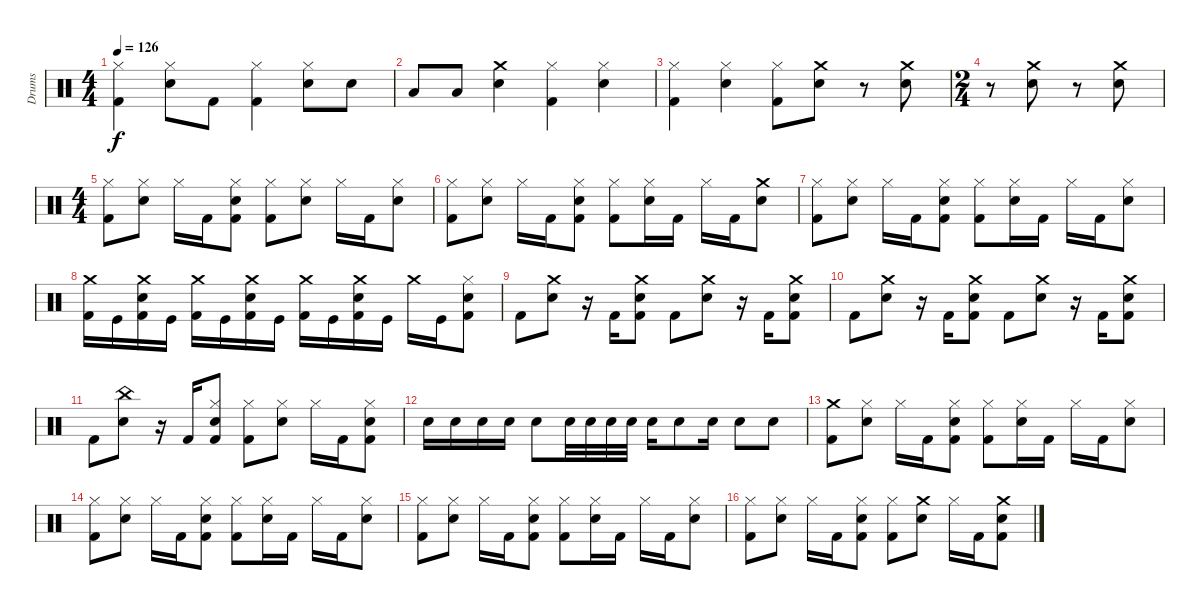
\track ("Drums" "Drums") {instrument percussion}
\staff {score}
\articulation defaults
\ts (4 4)
\tempo 126
\clef neutral
\ks c
("Kick (hit) 2" "Hi-Hat (closed)").4{dy f} ("Hi-Hat (closed)" "Snare (hit) 2").8 "Kick (hit) 2".8 ("Kick (hit) 2" "Hi-Hat (closed)").4 ("Hi-Hat (closed)" "Snare (hit) 2").8 "Snare (hit) 2".8 |
"Low Tom (hit)".8 "Low Tom (hit)".8 ("Snare (hit) 2" "Crash medium (hit)").4 ("Kick (hit) 2" "Hi-Hat (closed)").4 ("Hi-Hat (closed)" "Snare (hit) 2").4 |
("Kick (hit) 2" "Hi-Hat (closed)").4 ("Hi-Hat (closed)" "Snare (hit) 2").4 ("Hi-Hat (closed)" "Kick (hit) 2").8 ("Crash medium (hit)" "Snare (hit) 2").8 r.8 ("Snare (hit) 2" "Crash medium (hit)").8 |
\ts (2 4)
r.8 ("Crash medium (hit)" "Snare (hit) 2").8 r.8 ("Crash medium (hit)" "Snare (hit) 2").8 |
\ts (4 4)
("Hi-Hat (closed)" "Kick (hit) 2").8 ("Snare (hit) 2" "Hi-Hat (closed)").8 "Hi-Hat (closed)".16 "Kick (hit) 2".16 ("Snare (hit) 2" "Hi-Hat (closed)" "Kick (hit) 2").8 ("Hi-Hat (closed)" "Kick (hit) 2").8 ("Snare (hit) 2" "Hi-Hat (closed)").8 "Hi-Hat (closed)".16 "Kick (hit) 2".16 ("Snare (hit) 2" "Hi-Hat (closed)").8 |
("Kick (hit) 2" "Hi-Hat (closed)").8 ("Snare (hit) 2" "Hi-Hat (closed)").8 "Hi-Hat (closed)".16 "Kick (hit) 2".16 ("Kick (hit) 2" "Snare (hit) 2" "Hi-Hat (closed)").8 ("Kick (hit) 2" "Hi-Hat (closed)").8 ("Snare (hit) 2" "Hi-Hat (closed)").16 "Kick (hit) 2".16 "Hi-Hat (closed)".16 "Kick (hit) 2".16 ("Crash medium (hit)" "Snare (hit) 2").8 |
("Kick (hit) 2" "Hi-Hat (closed)").8 ("Snare (hit) 2" "Hi-Hat (closed)").8 "Hi-Hat (closed)".16 "Kick (hit) 2".16 ("Kick (hit) 2" "Snare (hit) 2" "Hi-Hat (closed)").8 ("Kick (hit) 2" "Hi-Hat (closed)").8 ("Snare (hit) 2" "Hi-Hat (closed)").16 "Kick (hit) 2".16 "Hi-Hat (closed)".16 "Kick (hit) 2".16 ("Hi-Hat (closed)" "Snare (hit) 2").8 |
("Crash medium (hit)" "Kick (hit) 2").16 "Kick (hit)".16 ("Snare (hit) 2" "Crash medium (hit)" "Kick (hit) 2").16 "Kick (hit)".16 ("Crash medium (hit)" "Kick (hit) 2").16 "Kick (hit)".16 ("Snare (hit) 2" "Crash medium (hit)" "Kick (hit) 2").16 "Kick (hit)".16 ("Crash medium (hit)" "Kick (hit) 2").16 "Kick (hit)".16 ("Snare (hit) 2" "Crash medium (hit)" "Kick (hit) 2").16 "Kick (hit)".16 "Crash medium (hit)".16 "Kick (hit)".16 ("Hi-Hat (closed)" "Snare (hit) 2" "Kick (hit) 2").8 |
"Kick (hit) 2".8 ("Snare (hit) 2" "Crash medium (hit)").8 r.16 "Kick (hit) 2".16 ("Kick (hit) 2" "Snare (hit) 2" "Crash medium (hit)").8 "Kick (hit) 2".8 ("Snare (hit) 2" "Crash medium (hit)").8 r.16 "Kick (hit) 2".16 ("Kick (hit) 2" "Snare (hit) 2" "Crash medium (hit)").8 |
"Kick (hit) 2".8 ("Snare (hit) 2" "Crash medium (hit)").8 r.16 "Kick (hit) 2".16 ("Kick (hit) 2" "Snare (hit) 2" "Crash medium (hit)").8 "Kick (hit) 2".8 ("Snare (hit) 2" "Crash medium (hit)").8 r.16 "Kick (hit) 2".16 ("Kick (hit) 2" "Snare (hit) 2" "Crash medium (hit)").8 |
"Kick (hit) 2".8 ("China (hit)" "Snare (hit) 2").8 r.16 "Kick (hit) 2".16 ("Hi-Hat (closed)" "Kick (hit) 2" "Snare (hit) 2").8 ("Hi-Hat (closed)" "Kick (hit) 2").8 ("Hi-Hat (closed)" "Snare (hit) 2").8 "Hi-Hat (closed)".16 "Kick (hit) 2".16 ("Hi-Hat (closed)" "Kick (hit) 2" "Snare (hit) 2").8 |
"Snare (hit) 2".16 "Snare (hit) 2".16 "Snare (hit) 2".16 "Snare (hit) 2".16 "Snare (hit) 2".8 "Snare (hit) 2".32 "Snare (hit) 2".32 "Snare (hit) 2".32 "Snare (hit) 2".32 "Snare (hit) 2".16 "Snare (hit) 2".8 "Snare (hit) 2".16 "Snare (hit) 2".8 "Snare (hit) 2".8 |
("Kick (hit) 2" "Crash medium (hit)").8 ("Snare (hit) 2" "Hi-Hat (closed)").8 "Hi-Hat (closed)".16 "Kick (hit) 2".16 ("Kick (hit) 2" "Snare (hit) 2" "Hi-Hat (closed)").8 ("Kick (hit) 2" "Hi-Hat (closed)").8 ("Snare (hit) 2" "Hi-Hat (closed)").16 "Kick (hit) 2".16 "Hi-Hat (closed)".16 "Kick (hit) 2".16 ("Snare (hit) 2" "Hi-Hat (closed)").8 |
("Hi-Hat (closed)" "Kick (hit) 2").8 ("Snare (hit) 2" "Hi-Hat (closed)").8 "Hi-Hat (closed)".16 "Kick (hit) 2".16 ("Kick (hit) 2" "Snare (hit) 2" "Hi-Hat (closed)").8 ("Kick (hit) 2" "Hi-Hat (closed)").8 ("Snare (hit) 2" "Hi-Hat (closed)").16 "Kick (hit) 2".16 "Hi-Hat (closed)".16 "Kick (hit) 2".16 ("Snare (hit) 2" "Hi-Hat (closed)").8 |
("Hi-Hat (closed)" "Kick (hit) 2").8 ("Snare (hit) 2" "Hi-Hat (closed)").8 "Hi-Hat (closed)".16 "Kick (hit) 2".16 ("Snare (hit) 2" "Hi-Hat (closed)" "Kick (hit) 2").8 ("Hi-Hat (closed)" "Kick (hit) 2").8 ("Snare (hit) 2" "Hi-Hat (closed)").16 "Kick (hit) 2".16 "Hi-Hat (closed)".16 "Kick (hit) 2".16 ("Snare (hit) 2" "Hi-Hat (closed)").8 |
("Hi-Hat (closed)" "Kick (hit) 2").8 ("Snare (hit) 2" "Hi-Hat (closed)").8 "Hi-Hat (closed)".16 "Kick (hit) 2".16 ("Kick (hit) 2" "Snare (hit) 2" "Hi-Hat (closed)").8 ("Hi-Hat (closed)" "Kick (hit) 2").8 ("Crash medium (hit)" "Snare (hit) 2").8 "Hi-Hat (closed)".16 "Kick (hit) 2".16 ("Kick (hit) 2" "Crash medium (hit)" "Snare (hit) 2").8
